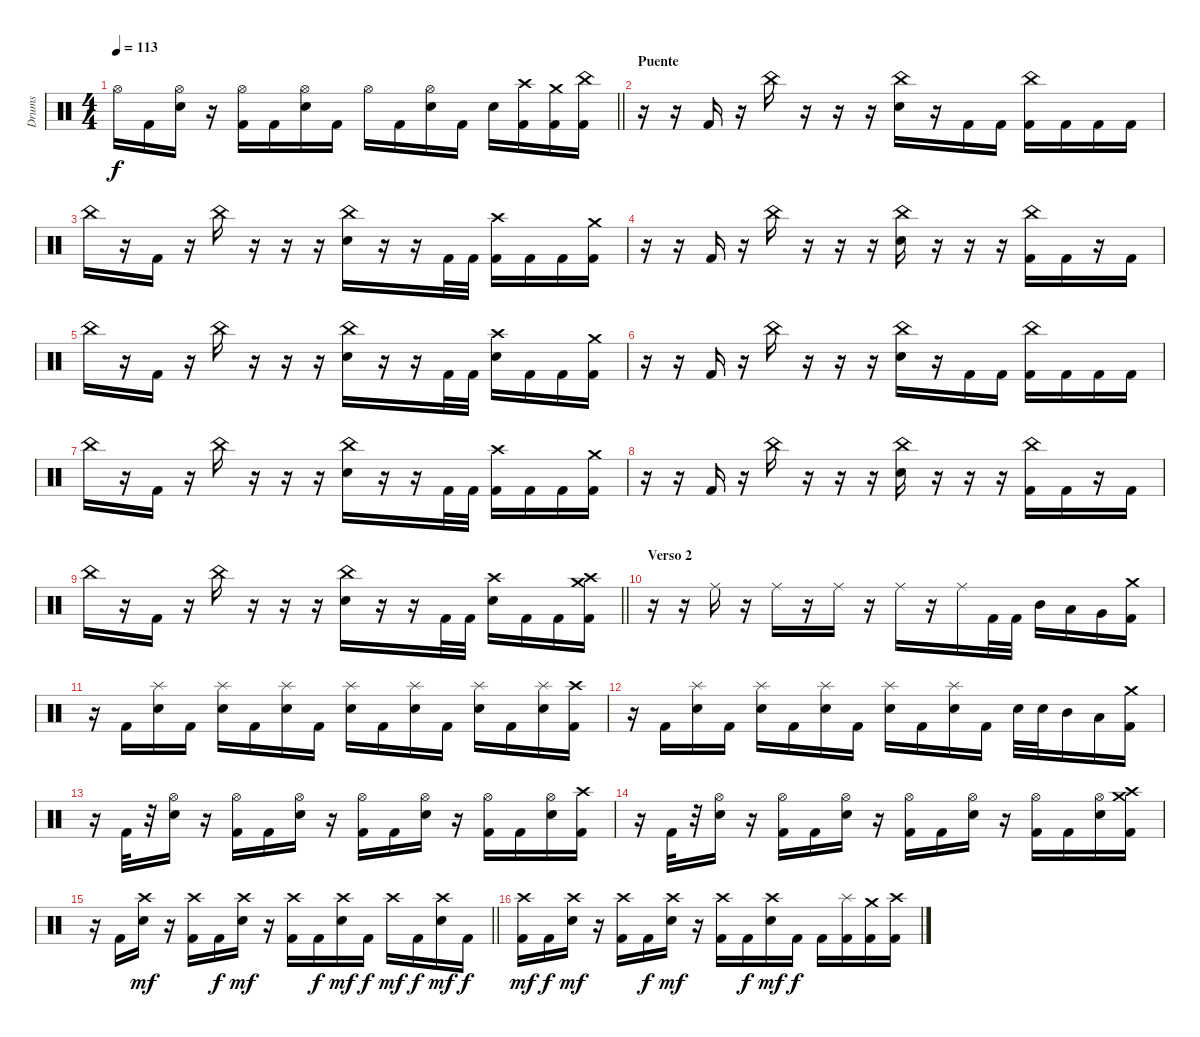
\track ("Drums" "Drums") {instrument percussion}
\staff {score}
\articulation defaults
\ts (4 4)
\tempo 113
\clef neutral
\barLineRight lightlight
\ks c "Hi-Hat (open)".16{dy f} "Kick (hit) 2".16
("Hi-Hat (open)" "Electric Snare (hit)").16 r.16 ("Hi-Hat (open)" "Kick (hit) 2").16 "Kick (hit) 2".16 ("Hi-Hat (open)" "Electric Snare (hit)").16 "Kick (hit) 2".16 "Hi-Hat (open)".16 "Kick (hit) 2".16 ("Hi-Hat (open)" "Electric Snare (hit)").16 "Kick (hit) 2".16 "Electric Snare (hit)".16 ("Crash high (hit)" "Kick (hit) 2").16 ("Crash medium (hit)" "Kick (hit) 2").16 ("China (hit)" "Kick (hit) 2").16 |
\section ("" "Puente")
r.16 r.16 "Kick (hit) 2".16 r.16 "China (hit)".16 r.16 r.16 r.16 ("China (hit)" "Electric Snare (hit)").16 r.16 "Kick (hit) 2".16 "Kick (hit) 2".16 ("China (hit)" "Kick (hit) 2").16 "Kick (hit) 2".16 "Kick (hit) 2".16 "Kick (hit) 2".16 |
"China (hit)".16 r.16 "Kick (hit) 2".16 r.16 "China (hit)".16 r.16 r.16 r.16 ("China (hit)" "Electric Snare (hit)").16 r.16 r.16 "Kick (hit) 2".32 "Kick (hit) 2".32 ("Crash high (hit)" "Kick (hit) 2").16 "Kick (hit) 2".16 "Kick (hit) 2".16 ("Crash medium (hit)" "Kick (hit) 2").16 |
r.16 r.16 "Kick (hit) 2".16 r.16 "China (hit)".16 r.16 r.16 r.16 ("China (hit)" "Electric Snare (hit)").16 r.16 r.16 r.16 ("China (hit)" "Kick (hit) 2").16 "Kick (hit) 2".16 r.16 "Kick (hit) 2".16 |
"China (hit)".16 r.16 "Kick (hit) 2".16 r.16 "China (hit)".16 r.16 r.16 r.16 ("China (hit)" "Electric Snare (hit)").16 r.16 r.16 "Kick (hit) 2".32 "Kick (hit) 2".32 ("Crash high (hit)" "Electric Snare (hit)").16 "Kick (hit) 2".16 "Kick (hit) 2".16 ("Crash medium (hit)" "Kick (hit) 2").16 |
r.16 r.16 "Kick (hit) 2".16 r.16 "China (hit)".16 r.16 r.16 r.16 ("China (hit)" "Electric Snare (hit)").16 r.16 "Kick (hit) 2".16 "Kick (hit) 2".16 ("China (hit)" "Kick (hit) 2").16 "Kick (hit) 2".16 "Kick (hit) 2".16 "Kick (hit) 2".16 |
"China (hit)".16 r.16 "Kick (hit) 2".16 r.16 "China (hit)".16 r.16 r.16 r.16 ("China (hit)" "Electric Snare (hit)").16 r.16 r.16 "Kick (hit) 2".32 "Kick (hit) 2".32 ("Crash high (hit)" "Kick (hit) 2").16 "Kick (hit) 2".16 "Kick (hit) 2".16 ("Crash medium (hit)" "Kick (hit) 2").16 |
r.16 r.16 "Kick (hit) 2".16 r.16 "China (hit)".16 r.16 r.16 r.16 ("China (hit)" "Electric Snare (hit)").16 r.16 r.16 r.16 ("China (hit)" "Kick (hit) 2").16 "Kick (hit) 2".16 r.16 "Kick (hit) 2".16 |
\barLineRight lightlight "China (hit)".16
r.16 "Kick (hit) 2".16 r.16 "China (hit)".16 r.16 r.16 r.16 ("China (hit)" "Electric Snare (hit)").16 r.16 r.16 "Kick (hit) 2".32 "Kick (hit) 2".32 ("Crash high (hit)" "Electric Snare (hit)").16 "Kick (hit) 2".16 "Kick (hit) 2".16 ("Crash high (hit)" "Crash medium (hit)" "Kick (hit) 2").16 |
\section ("" "Verso 2")
r.16 r.16 "Ride (middle)".16 r.16 "Ride (middle)".16 r.16 "Ride (middle)".16 r.16 "Ride (middle)".16 r.16 "Ride (middle)".16 "Kick (hit) 2".32 "Kick (hit) 2".32 "Mid Tom (hit)".16 "Low Tom (hit)".16 "Very Low Tom (hit)".16 ("Crash medium (hit)" "Kick (hit) 2").16 |
r.16 "Kick (hit) 2".16 ("Splash (hit)" "Electric Snare (hit)").16 "Kick (hit) 2".16 ("Splash (hit)" "Electric Snare (hit)").16 "Kick (hit) 2".16 ("Splash (hit)" "Electric Snare (hit)").16 "Kick (hit) 2".16 ("Splash (hit)" "Electric Snare (hit)").16 "Kick (hit) 2".16 ("Splash (hit)" "Electric Snare (hit)").16 "Kick (hit) 2".16 ("Splash (hit)" "Electric Snare (hit)").16 "Kick (hit) 2".16 ("Splash (hit)" "Electric Snare (hit)").16 ("Crash high (hit)" "Kick (hit) 2").16 |
r.16 "Kick (hit) 2".16 ("Splash (hit)" "Electric Snare (hit)").16 "Kick (hit) 2".16 ("Splash (hit)" "Electric Snare (hit)").16 "Kick (hit) 2".16 ("Splash (hit)" "Electric Snare (hit)").16 "Kick (hit) 2".16 ("Splash (hit)" "Electric Snare (hit)").16 "Kick (hit) 2".16 ("Splash (hit)" "Electric Snare (hit)").16 "Kick (hit) 2".16 "Electric Snare (hit)".32 "Electric Snare (hit)".32 "Mid Tom (hit)".16 "Low Tom (hit)".16 ("Crash medium (hit)" "Kick (hit) 2").16 |
r.16 "Kick (hit) 2".32 r.32 ("Hi-Hat (open)" "Electric Snare (hit)").16 r.16 ("Hi-Hat (open)" "Kick (hit) 2").16 "Kick (hit) 2".16 ("Hi-Hat (open)" "Electric Snare (hit)").16 r.16 ("Hi-Hat (open)" "Kick (hit) 2").16 "Kick (hit) 2".16 ("Hi-Hat (open)" "Electric Snare (hit)").16 r.16 ("Hi-Hat (open)" "Kick (hit) 2").16 "Kick (hit) 2".16 ("Hi-Hat (open)" "Electric Snare (hit)").16 ("Crash high (hit)" "Kick (hit) 2").16 |
r.16 "Kick (hit) 2".32 r.32 ("Hi-Hat (open)" "Electric Snare (hit)").16 r.16 ("Hi-Hat (open)" "Kick (hit) 2").16 "Kick (hit) 2".16 ("Hi-Hat (open)" "Electric Snare (hit)").16 r.16 ("Hi-Hat (open)" "Kick (hit) 2").16 "Kick (hit) 2".16 ("Hi-Hat (open)" "Electric Snare (hit)").16 r.16 ("Hi-Hat (open)" "Kick (hit) 2").16 "Kick (hit) 2".16 ("Hi-Hat (open)" "Electric Snare (hit)").16 ("Crash medium (hit)" "Crash high (hit)" "Kick (hit) 2").16 |
\barLineRight lightlight
r.16 "Kick (hit) 2".16 ("Crash high (hit)" "Electric Snare (hit)").16{dy mf} r.16 ("Crash high (hit)" "Kick (hit) 2").16 "Kick (hit) 2".16{dy f} ("Crash high (hit)" "Electric Snare (hit)").16{dy mf} r.16 ("Crash high (hit)" "Kick (hit) 2").16 "Kick (hit) 2".16{dy f} ("Crash high (hit)" "Electric Snare (hit)").16{dy mf} "Kick (hit) 2".16{dy f} "Crash high (hit)".16{dy mf} "Kick (hit) 2".16{dy f} ("Crash high (hit)" "Electric Snare (hit)").16{dy mf} "Kick (hit) 2".16{dy f} |
("Crash high (hit)" "Kick (hit) 2").16{dy mf} "Kick (hit) 2".16{dy f} ("Crash high (hit)" "Electric Snare (hit)").16{dy mf} r.16 ("Crash high (hit)" "Kick (hit) 2").16 "Kick (hit) 2".16{dy f} ("Crash high (hit)" "Electric Snare (hit)").16{dy mf} r.16 ("Crash high (hit)" "Kick (hit) 2").16 "Kick (hit) 2".16{dy f} ("Crash high (hit)" "Electric Snare (hit)").16{dy mf} "Kick (hit) 2".16{dy f} "Kick (hit) 2".16 ("Splash (hit)" "Kick (hit) 2").16 ("Crash medium (hit)" "Kick (hit) 2").16 ("Crash high (hit)" "Kick (hit) 2").16
